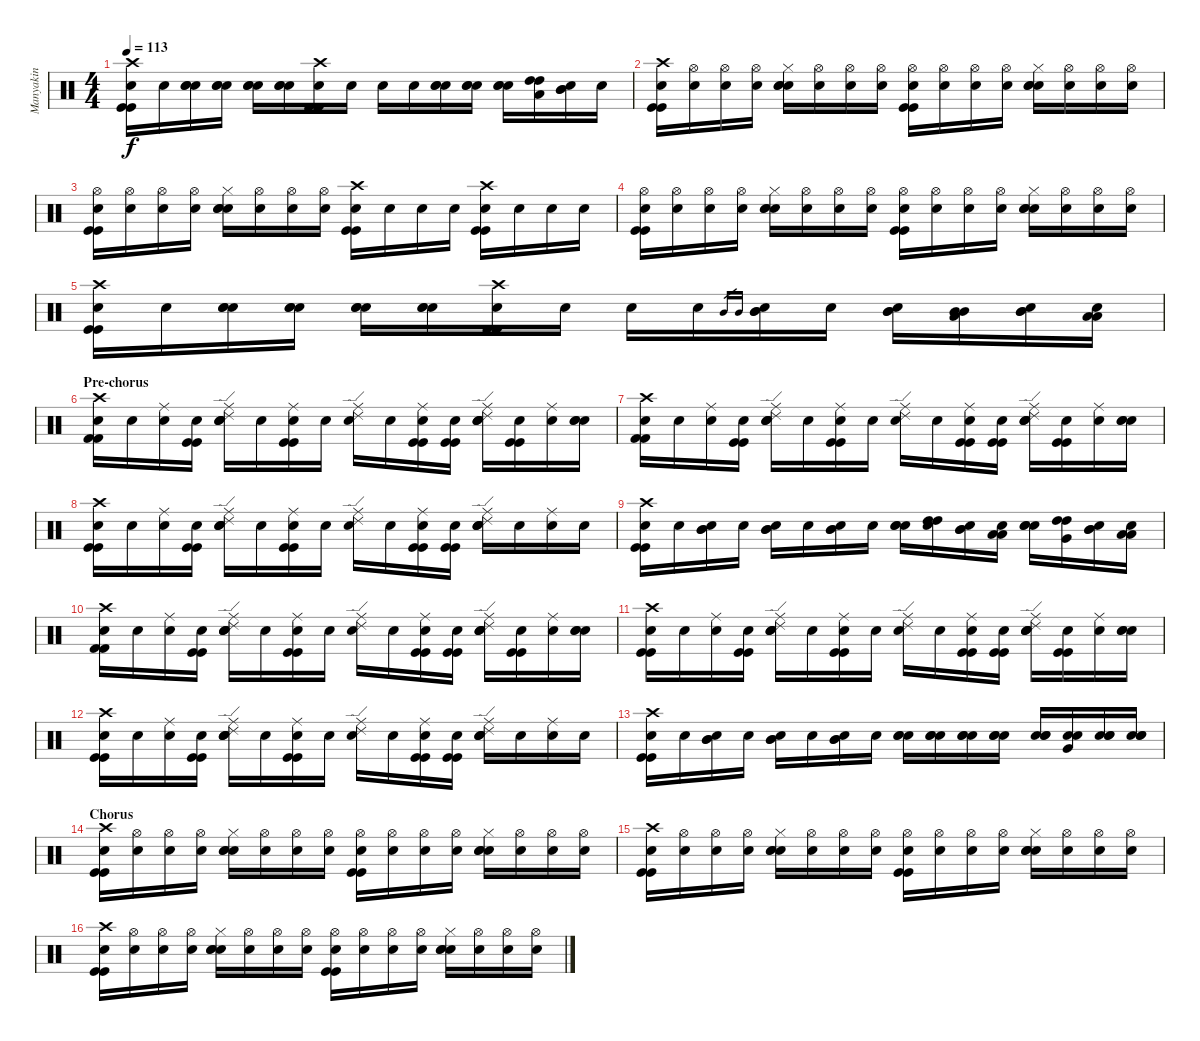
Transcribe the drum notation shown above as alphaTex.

\track ("Manyakin" "Manyakin") {instrument percussion}
\staff {score}
\articulation defaults
\ts (4 4)
\tempo 113
\clef neutral
\ks c
("Crash high (hit)" "Kick (hit)" "Kick (hit)" "Snare (hit)"{x}).16{dy f} "Snare (hit)"{x}.16 ("Electric Snare (hit)" "Electric Snare (hit)" "Snare (hit)"{x}).16 ("Electric Snare (hit)" "Electric Snare (hit)" "Snare (hit)"{x}).16 ("Electric Snare (hit)" "Electric Snare (hit)" "Snare (hit)"{x}).16 ("Electric Snare (hit)" "Electric Snare (hit)" "Snare (hit)"{x}).16 ("Crash high (hit)" "Kick (hit)" "Kick (hit)" "Snare (hit)"{x}).16 "Snare (hit)"{x}.16 "Snare (hit)"{x}.16 "Snare (hit)"{x}.16 ("Electric Snare (hit)" "Electric Snare (hit)" "Snare (hit)"{x}).16 ("Electric Snare (hit)" "Electric Snare (hit)" "Snare (hit)"{x}).16 ("Electric Snare (hit)" "Electric Snare (hit)" "Snare (hit)"{x}).16 ("High Tom (hit)" "High Tom (hit)" "Low Tom (hit)"{x}).16 ("Mid Tom (hit)" "Mid Tom (hit)" "Snare (hit)"{x}).16 "Snare (hit)"{x}.16 |
("Crash high (hit)" "Kick (hit)" "Kick (hit)" "Snare (hit)"{x}).16 ("Hi-Hat (open)" "Snare (hit)"{x}).16 ("Hi-Hat (open)" "Snare (hit)"{x}).16 ("Hi-Hat (open)" "Snare (hit)"{x}).16 ("Hi-Hat (closed)" "Electric Snare (hit)" "Electric Snare (hit)" "Snare (hit)"{x}).16 ("Hi-Hat (open)" "Snare (hit)"{x}).16 ("Hi-Hat (open)" "Snare (hit)"{x}).16 ("Hi-Hat (open)" "Snare (hit)"{x}).16 ("Hi-Hat (open)" "Kick (hit)" "Kick (hit)" "Snare (hit)"{x}).16 ("Hi-Hat (open)" "Snare (hit)"{x}).16 ("Hi-Hat (open)" "Snare (hit)"{x}).16 ("Hi-Hat (open)" "Snare (hit)"{x}).16 ("Hi-Hat (closed)" "Electric Snare (hit)" "Electric Snare (hit)" "Snare (hit)"{x}).16 ("Hi-Hat (open)" "Snare (hit)"{x}).16 ("Hi-Hat (open)" "Snare (hit)"{x}).16 ("Hi-Hat (open)" "Snare (hit)"{x}).16 |
("Hi-Hat (open)" "Kick (hit)" "Kick (hit)" "Snare (hit)"{x}).16 ("Hi-Hat (open)" "Snare (hit)"{x}).16 ("Hi-Hat (open)" "Snare (hit)"{x}).16 ("Hi-Hat (open)" "Snare (hit)"{x}).16 ("Hi-Hat (closed)" "Electric Snare (hit)" "Electric Snare (hit)" "Snare (hit)"{x}).16 ("Hi-Hat (open)" "Snare (hit)"{x}).16 ("Hi-Hat (open)" "Snare (hit)"{x}).16 ("Hi-Hat (open)" "Snare (hit)"{x}).16 ("Crash high (hit)" "Kick (hit)" "Kick (hit)" "Snare (hit)"{x}).16 "Snare (hit)"{x}.16 "Snare (hit)"{x}.16 "Snare (hit)"{x}.16 ("Crash high (hit)" "Kick (hit)" "Kick (hit)" "Snare (hit)"{x}).16 "Snare (hit)"{x}.16 "Snare (hit)"{x}.16 "Snare (hit)"{x}.16 |
("Hi-Hat (open)" "Kick (hit)" "Kick (hit)" "Snare (hit)"{x}).16 ("Hi-Hat (open)" "Snare (hit)"{x}).16 ("Hi-Hat (open)" "Snare (hit)"{x}).16 ("Hi-Hat (open)" "Snare (hit)"{x}).16 ("Hi-Hat (closed)" "Electric Snare (hit)" "Electric Snare (hit)" "Snare (hit)"{x}).16 ("Hi-Hat (open)" "Snare (hit)"{x}).16 ("Hi-Hat (open)" "Snare (hit)"{x}).16 ("Hi-Hat (open)" "Snare (hit)"{x}).16 ("Hi-Hat (open)" "Kick (hit)" "Kick (hit)" "Snare (hit)"{x}).16 ("Hi-Hat (open)" "Snare (hit)"{x}).16 ("Hi-Hat (open)" "Snare (hit)"{x}).16 ("Hi-Hat (open)" "Snare (hit)"{x}).16 ("Hi-Hat (closed)" "Electric Snare (hit)" "Electric Snare (hit)" "Snare (hit)"{x}).16 ("Hi-Hat (open)" "Snare (hit)"{x}).16 ("Hi-Hat (open)" "Snare (hit)"{x}).16 ("Hi-Hat (open)" "Snare (hit)"{x}).16 |
("Crash high (hit)" "Kick (hit)" "Kick (hit)" "Snare (hit)"{x}).16 "Snare (hit)"{x}.16 ("Electric Snare (hit)" "Electric Snare (hit)" "Snare (hit)"{x}).16 ("Electric Snare (hit)" "Electric Snare (hit)" "Snare (hit)"{x}).16 ("Electric Snare (hit)" "Electric Snare (hit)" "Snare (hit)"{x}).16 ("Electric Snare (hit)" "Electric Snare (hit)" "Snare (hit)"{x}).16 ("Crash high (hit)" "Kick (hit)" "Kick (hit)" "Snare (hit)"{x}).16 "Snare (hit)"{x}.16 "Snare (hit)"{x}.16 "Snare (hit)"{x}.16 "Mid Tom (hit)".16{gr} "Mid Tom (hit)".16{gr} ("Mid Tom (hit)" "Mid Tom (hit)" "Snare (hit)"{x}).16 "Snare (hit)"{x}.16 ("Mid Tom (hit)" "Mid Tom (hit)" "Snare (hit)"{x}).16 ("Mid Tom (hit)" "Mid Tom (hit)" "Low Tom (hit)"{x}).16 ("Mid Tom (hit)" "Mid Tom (hit)" "Snare (hit)"{x}).16 ("Low Tom (hit)" "Low Tom (hit)" "Snare (hit)"{x}).16 |
\section ("" "Pre-chorus")
("Crash high (hit)" "Kick (hit) 2" "Kick (hit) 2" "Snare (hit)"{x}).16 "Snare (hit)"{x}.16 ("Ride (middle)" "Snare (hit)"{x}).16 ("Kick (hit)" "Kick (hit)" "Snare (hit)"{x}).16 ("Ride (middle)" "Ride (edge) 2" "Electric Snare (hit)" "Electric Snare (hit)" "Snare (hit)"{x}).16 "Snare (hit)"{x}.16 ("Ride (middle)" "Kick (hit)" "Kick (hit)" "Snare (hit)"{x}).16 "Snare (hit)"{x}.16 ("Ride (middle)" "Ride (edge) 2" "Snare (hit)"{x}).16 "Snare (hit)"{x}.16 ("Ride (middle)" "Kick (hit)" "Kick (hit)" "Snare (hit)"{x}).16 ("Kick (hit)" "Kick (hit)" "Snare (hit)"{x}).16 ("Ride (middle)" "Ride (edge) 2" "Electric Snare (hit)" "Electric Snare (hit)" "Snare (hit)"{x}).16 ("Kick (hit)" "Kick (hit)" "Snare (hit)"{x}).16 ("Ride (middle)" "Snare (hit)"{x}).16 ("Electric Snare (hit)" "Electric Snare (hit)" "Snare (hit)"{x}).16 |
("Crash high (hit)" "Kick (hit) 2" "Kick (hit) 2" "Snare (hit)"{x}).16 "Snare (hit)"{x}.16 ("Ride (middle)" "Snare (hit)"{x}).16 ("Kick (hit)" "Kick (hit)" "Snare (hit)"{x}).16 ("Ride (middle)" "Ride (edge) 2" "Electric Snare (hit)" "Electric Snare (hit)" "Snare (hit)"{x}).16 "Snare (hit)"{x}.16 ("Ride (middle)" "Kick (hit)" "Kick (hit)" "Snare (hit)"{x}).16 "Snare (hit)"{x}.16 ("Ride (middle)" "Ride (edge) 2" "Snare (hit)"{x}).16 "Snare (hit)"{x}.16 ("Ride (middle)" "Kick (hit)" "Kick (hit)" "Snare (hit)"{x}).16 ("Kick (hit)" "Kick (hit)" "Snare (hit)"{x}).16 ("Ride (middle)" "Ride (edge) 2" "Electric Snare (hit)" "Electric Snare (hit)" "Snare (hit)"{x}).16 ("Kick (hit)" "Kick (hit)" "Snare (hit)"{x}).16 ("Ride (middle)" "Snare (hit)"{x}).16 ("Electric Snare (hit)" "Electric Snare (hit)" "Snare (hit)"{x}).16 |
("Crash high (hit)" "Kick (hit)" "Kick (hit)" "Snare (hit)"{x}).16 "Snare (hit)"{x}.16 ("Ride (middle)" "Snare (hit)"{x}).16 ("Kick (hit)" "Kick (hit)" "Snare (hit)"{x}).16 ("Ride (middle)" "Ride (edge) 2" "Electric Snare (hit)" "Electric Snare (hit)" "Snare (hit)"{x}).16 "Snare (hit)"{x}.16 ("Ride (middle)" "Kick (hit)" "Kick (hit)" "Snare (hit)"{x}).16 "Snare (hit)"{x}.16 ("Ride (middle)" "Ride (edge) 2" "Snare (hit)"{x}).16 "Snare (hit)"{x}.16 ("Ride (middle)" "Kick (hit)" "Kick (hit)" "Snare (hit)"{x}).16 ("Kick (hit)" "Kick (hit)" "Snare (hit)"{x}).16 ("Ride (middle)" "Ride (edge) 2" "Electric Snare (hit)" "Electric Snare (hit)" "Snare (hit)"{x}).16 "Snare (hit)"{x}.16 ("Ride (middle)" "Snare (hit)"{x}).16 "Snare (hit)"{x}.16 |
("Crash high (hit)" "Kick (hit)" "Kick (hit)" "Snare (hit)"{x}).16 "Snare (hit)"{x}.16 ("Mid Tom (hit)" "Mid Tom (hit)" "Snare (hit)"{x}).16 "Snare (hit)"{x}.16 ("Mid Tom (hit)" "Mid Tom (hit)" "Snare (hit)"{x}).16 "Snare (hit)"{x}.16 ("Mid Tom (hit)" "Mid Tom (hit)" "Snare (hit)"{x}).16 "Snare (hit)"{x}.16 ("Electric Snare (hit)" "Electric Snare (hit)" "Snare (hit)"{x}).16 ("High Tom (hit)" "High Tom (hit)" "Snare (hit)"{x}).16 ("Mid Tom (hit)" "Mid Tom (hit)" "Snare (hit)"{x}).16 ("Low Tom (hit)" "Low Tom (hit)" "Snare (hit)"{x}).16 ("Electric Snare (hit)" "Electric Snare (hit)" "Snare (hit)"{x}).16 ("High Tom (hit)" "High Tom (hit)" "Very Low Tom (hit)"{x}).16 ("Mid Tom (hit)" "Mid Tom (hit)" "Snare (hit)"{x}).16 ("Low Tom (hit)" "Low Tom (hit)" "Snare (hit)"{x}).16 |
("Crash high (hit)" "Kick (hit) 2" "Kick (hit) 2" "Snare (hit)"{x}).16 "Snare (hit)"{x}.16 ("Ride (middle)" "Snare (hit)"{x}).16 ("Kick (hit)" "Kick (hit)" "Snare (hit)"{x}).16 ("Ride (middle)" "Ride (edge) 2" "Electric Snare (hit)" "Electric Snare (hit)" "Snare (hit)"{x}).16 "Snare (hit)"{x}.16 ("Ride (middle)" "Kick (hit)" "Kick (hit)" "Snare (hit)"{x}).16 "Snare (hit)"{x}.16 ("Ride (middle)" "Ride (edge) 2" "Snare (hit)"{x}).16 "Snare (hit)"{x}.16 ("Ride (middle)" "Kick (hit)" "Kick (hit)" "Snare (hit)"{x}).16 ("Kick (hit)" "Kick (hit)" "Snare (hit)"{x}).16 ("Ride (middle)" "Ride (edge) 2" "Electric Snare (hit)" "Electric Snare (hit)" "Snare (hit)"{x}).16 ("Kick (hit)" "Kick (hit)" "Snare (hit)"{x}).16 ("Ride (middle)" "Snare (hit)"{x}).16 ("Electric Snare (hit)" "Electric Snare (hit)" "Snare (hit)"{x}).16 |
("Crash high (hit)" "Kick (hit)" "Kick (hit)" "Snare (hit)"{x}).16 "Snare (hit)"{x}.16 ("Ride (middle)" "Snare (hit)"{x}).16 ("Kick (hit)" "Kick (hit)" "Snare (hit)"{x}).16 ("Ride (middle)" "Ride (edge) 2" "Electric Snare (hit)" "Electric Snare (hit)" "Snare (hit)"{x}).16 "Snare (hit)"{x}.16 ("Ride (middle)" "Kick (hit)" "Kick (hit)" "Snare (hit)"{x}).16 "Snare (hit)"{x}.16 ("Ride (middle)" "Ride (edge) 2" "Snare (hit)"{x}).16 "Snare (hit)"{x}.16 ("Ride (middle)" "Kick (hit)" "Kick (hit)" "Snare (hit)"{x}).16 ("Kick (hit)" "Kick (hit)" "Snare (hit)"{x}).16 ("Ride (middle)" "Ride (edge) 2" "Electric Snare (hit)" "Electric Snare (hit)" "Snare (hit)"{x}).16 ("Kick (hit)" "Kick (hit)" "Snare (hit)"{x}).16 ("Ride (middle)" "Snare (hit)"{x}).16 ("Electric Snare (hit)" "Electric Snare (hit)" "Snare (hit)"{x}).16 |
("Crash high (hit)" "Kick (hit)" "Kick (hit)" "Snare (hit)"{x}).16 "Snare (hit)"{x}.16 ("Ride (middle)" "Snare (hit)"{x}).16 ("Kick (hit)" "Kick (hit)" "Snare (hit)"{x}).16 ("Ride (middle)" "Ride (edge) 2" "Electric Snare (hit)" "Electric Snare (hit)" "Snare (hit)"{x}).16 "Snare (hit)"{x}.16 ("Ride (middle)" "Kick (hit)" "Kick (hit)" "Snare (hit)"{x}).16 "Snare (hit)"{x}.16 ("Ride (middle)" "Ride (edge) 2" "Snare (hit)"{x}).16 "Snare (hit)"{x}.16 ("Ride (middle)" "Kick (hit)" "Kick (hit)" "Snare (hit)"{x}).16 ("Kick (hit)" "Kick (hit)" "Snare (hit)"{x}).16 ("Ride (middle)" "Ride (edge) 2" "Electric Snare (hit)" "Electric Snare (hit)" "Snare (hit)"{x}).16 "Snare (hit)"{x}.16 ("Ride (middle)" "Snare (hit)"{x}).16 "Snare (hit)"{x}.16 |
("Crash high (hit)" "Kick (hit)" "Kick (hit)" "Snare (hit)"{x}).16 "Snare (hit)"{x}.16 ("Mid Tom (hit)" "Mid Tom (hit)" "Snare (hit)"{x}).16 "Snare (hit)"{x}.16 ("Mid Tom (hit)" "Mid Tom (hit)" "Snare (hit)"{x}).16 "Snare (hit)"{x}.16 ("Mid Tom (hit)" "Mid Tom (hit)" "Snare (hit)"{x}).16 "Snare (hit)"{x}.16 ("Electric Snare (hit)" "Electric Snare (hit)" "Snare (hit)"{x}).16 ("Electric Snare (hit)" "Electric Snare (hit)" "Snare (hit)"{x}).16 ("Electric Snare (hit)" "Electric Snare (hit)" "Snare (hit)"{x}).16 ("Electric Snare (hit)" "Electric Snare (hit)" "Snare (hit)"{x}).16 ("Electric Snare (hit)" "Electric Snare (hit)" "Snare (hit)"{x}).16 ("Electric Snare (hit)" "Electric Snare (hit)" "Very Low Tom (hit)"{x}).16 ("Electric Snare (hit)" "Electric Snare (hit)" "Snare (hit)"{x}).16 ("Electric Snare (hit)" "Electric Snare (hit)" "Snare (hit)"{x}).16 |
\section ("" "Chorus")
("Crash high (hit)" "Kick (hit)" "Kick (hit)" "Snare (hit)"{x}).16 ("Hi-Hat (open)" "Snare (hit)"{x}).16 ("Hi-Hat (open)" "Snare (hit)"{x}).16 ("Hi-Hat (open)" "Snare (hit)"{x}).16 ("Hi-Hat (closed)" "Electric Snare (hit)" "Electric Snare (hit)" "Snare (hit)"{x}).16 ("Hi-Hat (open)" "Snare (hit)"{x}).16 ("Hi-Hat (open)" "Snare (hit)"{x}).16 ("Hi-Hat (open)" "Snare (hit)"{x}).16 ("Hi-Hat (open)" "Kick (hit)" "Kick (hit)" "Snare (hit)"{x}).16 ("Hi-Hat (open)" "Snare (hit)"{x}).16 ("Hi-Hat (open)" "Snare (hit)"{x}).16 ("Hi-Hat (open)" "Snare (hit)"{x}).16 ("Hi-Hat (closed)" "Electric Snare (hit)" "Electric Snare (hit)" "Snare (hit)"{x}).16 ("Hi-Hat (open)" "Snare (hit)"{x}).16 ("Hi-Hat (open)" "Snare (hit)"{x}).16 ("Hi-Hat (open)" "Snare (hit)"{x}).16 |
("Crash high (hit)" "Kick (hit)" "Kick (hit)" "Snare (hit)"{x}).16 ("Hi-Hat (open)" "Snare (hit)"{x}).16 ("Hi-Hat (open)" "Snare (hit)"{x}).16 ("Hi-Hat (open)" "Snare (hit)"{x}).16 ("Hi-Hat (closed)" "Electric Snare (hit)" "Electric Snare (hit)" "Snare (hit)"{x}).16 ("Hi-Hat (open)" "Snare (hit)"{x}).16 ("Hi-Hat (open)" "Snare (hit)"{x}).16 ("Hi-Hat (open)" "Snare (hit)"{x}).16 ("Hi-Hat (open)" "Kick (hit)" "Kick (hit)" "Snare (hit)"{x}).16 ("Hi-Hat (open)" "Snare (hit)"{x}).16 ("Hi-Hat (open)" "Snare (hit)"{x}).16 ("Hi-Hat (open)" "Snare (hit)"{x}).16 ("Hi-Hat (closed)" "Electric Snare (hit)" "Electric Snare (hit)" "Snare (hit)"{x}).16 ("Hi-Hat (open)" "Snare (hit)"{x}).16 ("Hi-Hat (open)" "Snare (hit)"{x}).16 ("Hi-Hat (open)" "Snare (hit)"{x}).16 |
("Crash high (hit)" "Kick (hit)" "Kick (hit)" "Snare (hit)"{x}).16 ("Hi-Hat (open)" "Snare (hit)"{x}).16 ("Hi-Hat (open)" "Snare (hit)"{x}).16 ("Hi-Hat (open)" "Snare (hit)"{x}).16 ("Hi-Hat (closed)" "Electric Snare (hit)" "Electric Snare (hit)" "Snare (hit)"{x}).16 ("Hi-Hat (open)" "Snare (hit)"{x}).16 ("Hi-Hat (open)" "Snare (hit)"{x}).16 ("Hi-Hat (open)" "Snare (hit)"{x}).16 ("Hi-Hat (open)" "Kick (hit)" "Kick (hit)" "Snare (hit)"{x}).16 ("Hi-Hat (open)" "Snare (hit)"{x}).16 ("Hi-Hat (open)" "Snare (hit)"{x}).16 ("Hi-Hat (open)" "Snare (hit)"{x}).16 ("Hi-Hat (closed)" "Electric Snare (hit)" "Electric Snare (hit)" "Snare (hit)"{x}).16 ("Hi-Hat (open)" "Snare (hit)"{x}).16 ("Hi-Hat (open)" "Snare (hit)"{x}).16 ("Hi-Hat (open)" "Snare (hit)"{x}).16
